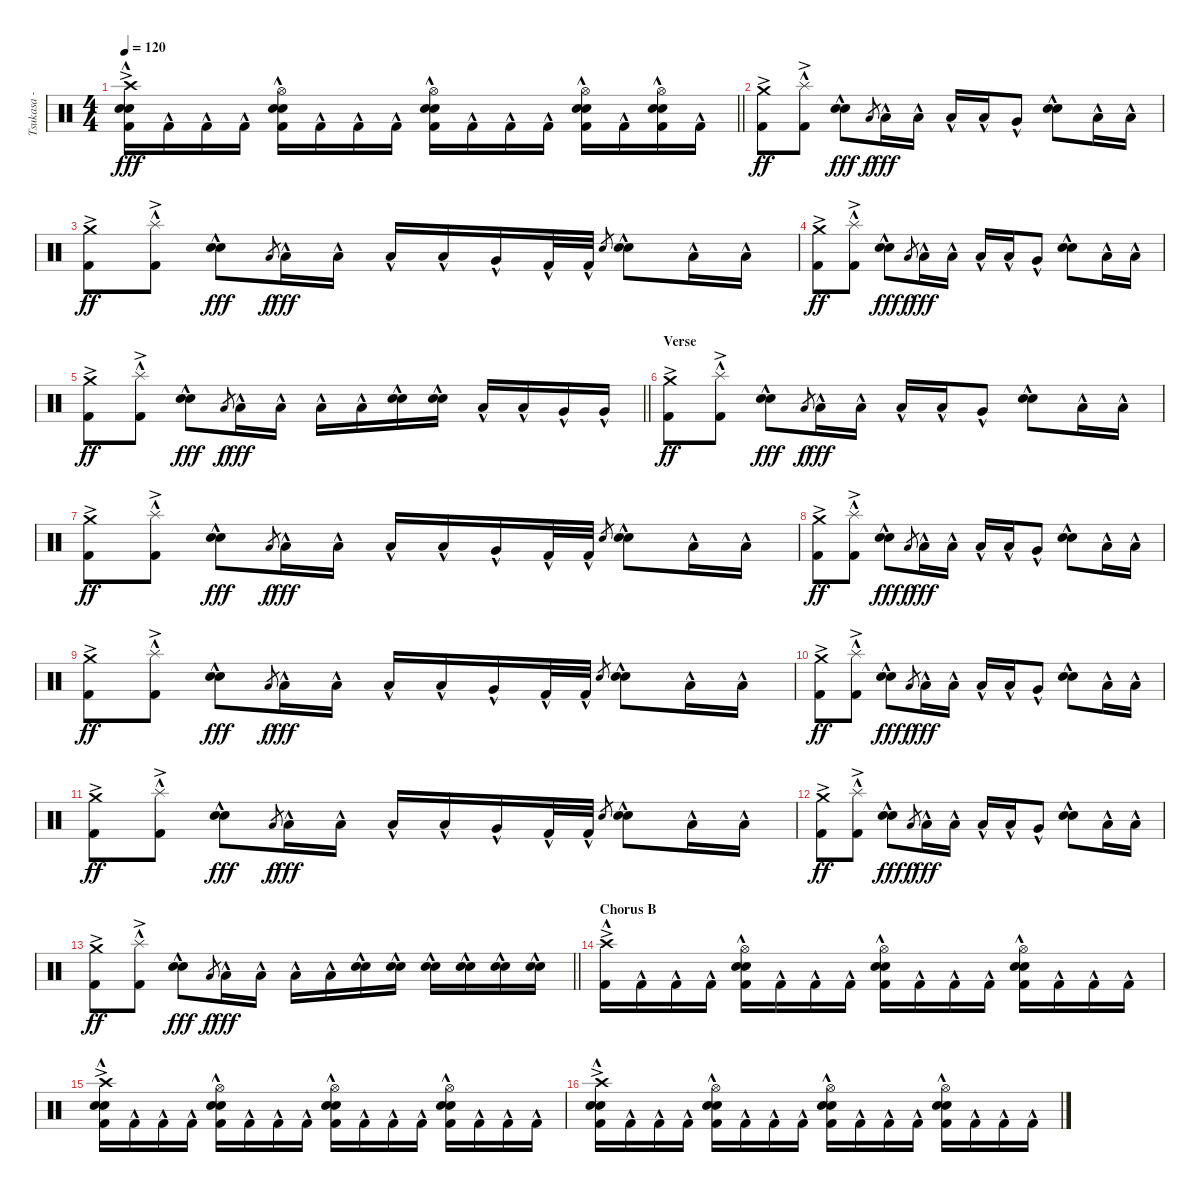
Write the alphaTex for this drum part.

\track ("Tsukasa - Drums" "Tsukasa - ") {instrument percussion}
\staff {score}
\articulation defaults
\ts (4 4)
\tempo 120
\clef neutral
\barLineRight lightlight
\ks c
("Crash high (hit)"{ac} "Electric Snare (hit)"{hac} "Snare (hit) 2"{hac} "Kick (hit) 2"{hac}).16{dy fff} "Kick (hit) 2"{hac}.16 "Kick (hit) 2"{hac}.16 "Kick (hit) 2"{hac}.16 ("Hi-Hat (open)" "Electric Snare (hit)"{hac} "Snare (hit) 2"{hac} "Kick (hit) 2"{hac}).16 "Kick (hit) 2"{hac}.16 "Kick (hit) 2"{hac}.16 "Kick (hit) 2"{hac}.16 ("Hi-Hat (open)" "Electric Snare (hit)"{hac} "Snare (hit) 2"{hac} "Kick (hit) 2"{hac}).16 "Kick (hit) 2"{hac}.16 "Kick (hit) 2"{hac}.16 "Kick (hit) 2"{hac}.16 ("Hi-Hat (open)" "Electric Snare (hit)"{hac} "Snare (hit) 2"{hac} "Kick (hit) 2"{hac}).16 "Kick (hit) 2"{hac}.16 ("Hi-Hat (open)" "Electric Snare (hit)"{hac} "Snare (hit) 2"{hac} "Kick (hit) 2"{hac}).16 "Kick (hit) 2"{hac}.16 |
\section ("" "")
("Crash medium (hit)"{ac} "Kick (hit) 2"{ac}).8{dy ff} ("Splash (hit)"{hac} "Kick (hit) 2"{ac}).8 ("Electric Snare (hit)"{hac} "Snare (hit) 2"{hac}).8{dy fff} "Low Tom (hit)".8{gr dy f} "Low Tom (hit)"{hac}.16{dy fff} "Low Tom (hit)"{hac}.16 "Low Tom (hit)"{hac}.16 "Low Tom (hit)"{hac}.16 "Very Low Tom (hit)"{hac}.8 ("Electric Snare (hit)"{hac} "Snare (hit) 2"{hac}).8 "Low Floor Tom (hit)"{hac}.16 "Low Floor Tom (hit)"{hac}.16 |
("Crash medium (hit)"{ac} "Kick (hit) 2"{ac}).8{dy ff} ("Splash (hit)"{hac} "Kick (hit) 2"{ac}).8 ("Electric Snare (hit)"{hac} "Snare (hit) 2"{hac}).8{dy fff} "Low Tom (hit)".8{gr dy f} "Low Tom (hit)"{hac}.16{dy fff} "Low Tom (hit)"{hac}.16 "Low Tom (hit)"{hac}.16 "Low Tom (hit)"{hac}.16 "Very Low Tom (hit)"{hac}.16 "Kick (hit) 2"{hac}.32 "Kick (hit) 2"{hac}.32 "Electric Snare (hit)".8{gr} ("Electric Snare (hit)"{hac} "Snare (hit) 2"{hac}).8 "Low Floor Tom (hit)"{hac}.16 "Low Floor Tom (hit)"{hac}.16 |
("Crash medium (hit)"{ac} "Kick (hit) 2"{ac}).8{dy ff} ("Splash (hit)"{hac} "Kick (hit) 2"{ac}).8 ("Electric Snare (hit)"{hac} "Snare (hit) 2"{hac}).8{dy fff} "Low Tom (hit)".8{gr dy f} "Low Tom (hit)"{hac}.16{dy fff} "Low Tom (hit)"{hac}.16 "Low Tom (hit)"{hac}.16 "Low Tom (hit)"{hac}.16 "Very Low Tom (hit)"{hac}.8 ("Electric Snare (hit)"{hac} "Snare (hit) 2"{hac}).8 "Low Floor Tom (hit)"{hac}.16 "Low Floor Tom (hit)"{hac}.16 |
\barLineRight lightlight
("Crash medium (hit)"{ac} "Kick (hit) 2"{ac}).8{dy ff} ("Splash (hit)"{hac} "Kick (hit) 2"{ac}).8 ("Electric Snare (hit)"{hac} "Snare (hit) 2"{hac}).8{dy fff} "Low Tom (hit)".8{gr dy f} "Low Tom (hit)"{hac}.16{dy fff} "Low Tom (hit)"{hac}.16 "Low Tom (hit)"{hac}.16 "Low Tom (hit)"{hac}.16 ("Electric Snare (hit)"{hac} "Snare (hit) 2"{hac}).16 ("Electric Snare (hit)"{hac} "Snare (hit) 2"{hac}).16 "Low Tom (hit)"{hac}.16 "Low Tom (hit)"{hac}.16 "Very Low Tom (hit)"{hac}.16 "Very Low Tom (hit)"{hac}.16 |
\section ("" "Verse")
("Crash medium (hit)"{ac} "Kick (hit) 2"{ac}).8{dy ff} ("Splash (hit)"{hac} "Kick (hit) 2"{ac}).8 ("Electric Snare (hit)"{hac} "Snare (hit) 2"{hac}).8{dy fff} "Low Tom (hit)".8{gr dy f} "Low Tom (hit)"{hac}.16{dy fff} "Low Tom (hit)"{hac}.16 "Low Tom (hit)"{hac}.16 "Low Tom (hit)"{hac}.16 "Very Low Tom (hit)"{hac}.8 ("Electric Snare (hit)"{hac} "Snare (hit) 2"{hac}).8 "Low Floor Tom (hit)"{hac}.16 "Low Floor Tom (hit)"{hac}.16 |
("Crash medium (hit)"{ac} "Kick (hit) 2"{ac}).8{dy ff} ("Splash (hit)"{hac} "Kick (hit) 2"{ac}).8 ("Electric Snare (hit)"{hac} "Snare (hit) 2"{hac}).8{dy fff} "Low Tom (hit)".8{gr dy f} "Low Tom (hit)"{hac}.16{dy fff} "Low Tom (hit)"{hac}.16 "Low Tom (hit)"{hac}.16 "Low Tom (hit)"{hac}.16 "Very Low Tom (hit)"{hac}.16 "Kick (hit) 2"{hac}.32 "Kick (hit) 2"{hac}.32 "Electric Snare (hit)".8{gr} ("Electric Snare (hit)"{hac} "Snare (hit) 2"{hac}).8 "Low Floor Tom (hit)"{hac}.16 "Low Floor Tom (hit)"{hac}.16 |
("Crash medium (hit)"{ac} "Kick (hit) 2"{ac}).8{dy ff} ("Splash (hit)"{hac} "Kick (hit) 2"{ac}).8 ("Electric Snare (hit)"{hac} "Snare (hit) 2"{hac}).8{dy fff} "Low Tom (hit)".8{gr dy f} "Low Tom (hit)"{hac}.16{dy fff} "Low Tom (hit)"{hac}.16 "Low Tom (hit)"{hac}.16 "Low Tom (hit)"{hac}.16 "Very Low Tom (hit)"{hac}.8 ("Electric Snare (hit)"{hac} "Snare (hit) 2"{hac}).8 "Low Floor Tom (hit)"{hac}.16 "Low Floor Tom (hit)"{hac}.16 |
("Crash medium (hit)"{ac} "Kick (hit) 2"{ac}).8{dy ff} ("Splash (hit)"{hac} "Kick (hit) 2"{ac}).8 ("Electric Snare (hit)"{hac} "Snare (hit) 2"{hac}).8{dy fff} "Low Tom (hit)".8{gr dy f} "Low Tom (hit)"{hac}.16{dy fff} "Low Tom (hit)"{hac}.16 "Low Tom (hit)"{hac}.16 "Low Tom (hit)"{hac}.16 "Very Low Tom (hit)"{hac}.16 "Kick (hit) 2"{hac}.32 "Kick (hit) 2"{hac}.32 "Electric Snare (hit)".8{gr} ("Electric Snare (hit)"{hac} "Snare (hit) 2"{hac}).8 "Low Floor Tom (hit)"{hac}.16 "Low Floor Tom (hit)"{hac}.16 |
("Crash medium (hit)"{ac} "Kick (hit) 2"{ac}).8{dy ff} ("Splash (hit)"{hac} "Kick (hit) 2"{ac}).8 ("Electric Snare (hit)"{hac} "Snare (hit) 2"{hac}).8{dy fff} "Low Tom (hit)".8{gr dy f} "Low Tom (hit)"{hac}.16{dy fff} "Low Tom (hit)"{hac}.16 "Low Tom (hit)"{hac}.16 "Low Tom (hit)"{hac}.16 "Very Low Tom (hit)"{hac}.8 ("Electric Snare (hit)"{hac} "Snare (hit) 2"{hac}).8 "Low Floor Tom (hit)"{hac}.16 "Low Floor Tom (hit)"{hac}.16 |
("Crash medium (hit)"{ac} "Kick (hit) 2"{ac}).8{dy ff} ("Splash (hit)"{hac} "Kick (hit) 2"{ac}).8 ("Electric Snare (hit)"{hac} "Snare (hit) 2"{hac}).8{dy fff} "Low Tom (hit)".8{gr dy f} "Low Tom (hit)"{hac}.16{dy fff} "Low Tom (hit)"{hac}.16 "Low Tom (hit)"{hac}.16 "Low Tom (hit)"{hac}.16 "Very Low Tom (hit)"{hac}.16 "Kick (hit) 2"{hac}.32 "Kick (hit) 2"{hac}.32 "Electric Snare (hit)".8{gr} ("Electric Snare (hit)"{hac} "Snare (hit) 2"{hac}).8 "Low Floor Tom (hit)"{hac}.16 "Low Floor Tom (hit)"{hac}.16 |
("Crash medium (hit)"{ac} "Kick (hit) 2"{ac}).8{dy ff} ("Splash (hit)"{hac} "Kick (hit) 2"{ac}).8 ("Electric Snare (hit)"{hac} "Snare (hit) 2"{hac}).8{dy fff} "Low Tom (hit)".8{gr dy f} "Low Tom (hit)"{hac}.16{dy fff} "Low Tom (hit)"{hac}.16 "Low Tom (hit)"{hac}.16 "Low Tom (hit)"{hac}.16 "Very Low Tom (hit)"{hac}.8 ("Electric Snare (hit)"{hac} "Snare (hit) 2"{hac}).8 "Low Floor Tom (hit)"{hac}.16 "Low Floor Tom (hit)"{hac}.16 |
\barLineRight lightlight
("Crash medium (hit)"{ac} "Kick (hit) 2"{ac}).8{dy ff} ("Splash (hit)"{hac} "Kick (hit) 2"{ac}).8 ("Electric Snare (hit)"{hac} "Snare (hit) 2"{hac}).8{dy fff} "Low Tom (hit)".8{gr dy f} "Low Tom (hit)"{hac}.16{dy fff} "Low Tom (hit)"{hac}.16 "Low Tom (hit)"{hac}.16 "Low Tom (hit)"{hac}.16 ("Electric Snare (hit)"{hac} "Snare (hit) 2"{hac}).16 ("Electric Snare (hit)"{hac} "Snare (hit) 2"{hac}).16 ("Electric Snare (hit)"{hac} "Snare (hit) 2"{hac}).16 ("Electric Snare (hit)"{hac} "Snare (hit) 2"{hac}).16 ("Electric Snare (hit)"{hac} "Snare (hit) 2"{hac}).16 ("Electric Snare (hit)"{hac} "Snare (hit) 2"{hac}).16 |
\section ("" "Chorus B")
("Crash high (hit)"{ac} "Kick (hit) 2"{hac}).16 "Kick (hit) 2"{hac}.16 "Kick (hit) 2"{hac}.16 "Kick (hit) 2"{hac}.16 ("Hi-Hat (open)" "Electric Snare (hit)"{hac} "Snare (hit) 2"{hac} "Kick (hit) 2"{hac}).16 "Kick (hit) 2"{hac}.16 "Kick (hit) 2"{hac}.16 "Kick (hit) 2"{hac}.16 ("Hi-Hat (open)" "Electric Snare (hit)"{hac} "Snare (hit) 2"{hac} "Kick (hit) 2"{hac}).16 "Kick (hit) 2"{hac}.16 "Kick (hit) 2"{hac}.16 "Kick (hit) 2"{hac}.16 ("Hi-Hat (open)" "Electric Snare (hit)"{hac} "Snare (hit) 2"{hac} "Kick (hit) 2"{hac}).16 "Kick (hit) 2"{hac}.16 "Kick (hit) 2"{hac}.16 "Kick (hit) 2"{hac}.16 |
("Crash high (hit)"{ac} "Electric Snare (hit)"{hac} "Snare (hit) 2"{hac} "Kick (hit) 2"{hac}).16 "Kick (hit) 2"{hac}.16 "Kick (hit) 2"{hac}.16 "Kick (hit) 2"{hac}.16 ("Hi-Hat (open)" "Electric Snare (hit)"{hac} "Snare (hit) 2"{hac} "Kick (hit) 2"{hac}).16 "Kick (hit) 2"{hac}.16 "Kick (hit) 2"{hac}.16 "Kick (hit) 2"{hac}.16 ("Hi-Hat (open)" "Electric Snare (hit)"{hac} "Snare (hit) 2"{hac} "Kick (hit) 2"{hac}).16 "Kick (hit) 2"{hac}.16 "Kick (hit) 2"{hac}.16 "Kick (hit) 2"{hac}.16 ("Hi-Hat (open)" "Electric Snare (hit)"{hac} "Snare (hit) 2"{hac} "Kick (hit) 2"{hac}).16 "Kick (hit) 2"{hac}.16 "Kick (hit) 2"{hac}.16 "Kick (hit) 2"{hac}.16 |
("Crash high (hit)"{ac} "Electric Snare (hit)"{hac} "Snare (hit) 2"{hac} "Kick (hit) 2"{hac}).16 "Kick (hit) 2"{hac}.16 "Kick (hit) 2"{hac}.16 "Kick (hit) 2"{hac}.16 ("Hi-Hat (open)" "Electric Snare (hit)"{hac} "Snare (hit) 2"{hac} "Kick (hit) 2"{hac}).16 "Kick (hit) 2"{hac}.16 "Kick (hit) 2"{hac}.16 "Kick (hit) 2"{hac}.16 ("Hi-Hat (open)" "Electric Snare (hit)"{hac} "Snare (hit) 2"{hac} "Kick (hit) 2"{hac}).16 "Kick (hit) 2"{hac}.16 "Kick (hit) 2"{hac}.16 "Kick (hit) 2"{hac}.16 ("Hi-Hat (open)" "Electric Snare (hit)"{hac} "Snare (hit) 2"{hac} "Kick (hit) 2"{hac}).16 "Kick (hit) 2"{hac}.16 "Kick (hit) 2"{hac}.16 "Kick (hit) 2"{hac}.16
